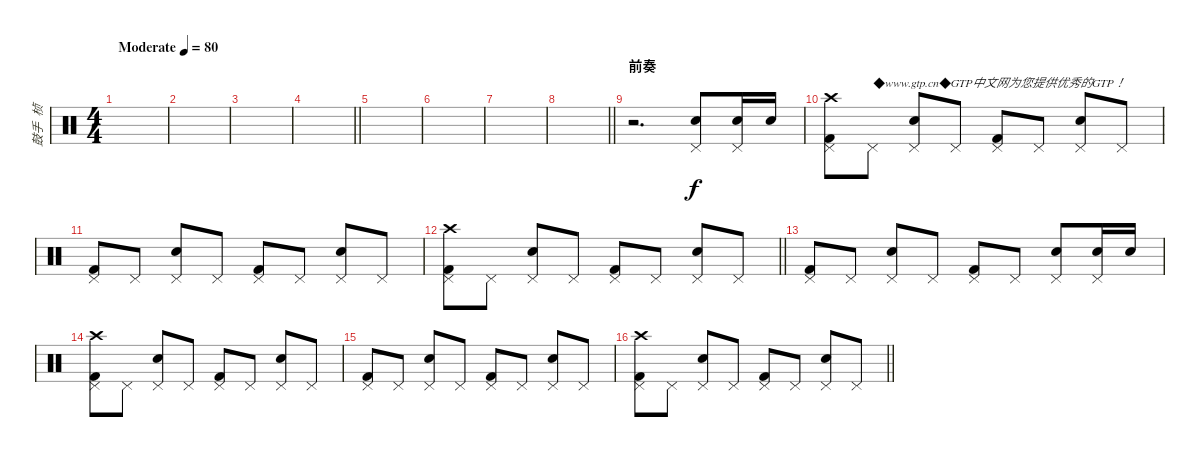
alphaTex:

\track ("鼓手  桢" "鼓手  桢") {instrument percussion}
\staff {score}
\articulation defaults
\ts (4 4)
\tempo (80 "Moderate")
\clef neutral
\ks c
|
|
|
\barLineRight lightlight
|
|
|
|
\barLineRight lightlight
|
\section ("" "前奏")
r.2{d} ("Pedal Hi-Hat (hit)" "Snare (hit) 2").8 ("Pedal Hi-Hat (hit)" "Snare (hit) 2").16 "Snare (hit) 2".16 |
("Pedal Hi-Hat (hit)" "Kick (hit) 2" "Crash high (hit)").8 "Pedal Hi-Hat (hit)".8{txt "◆www.gtp.cn◆GTP中文网为您提供优秀的GTP！"} ("Pedal Hi-Hat (hit)" "Snare (hit) 2").8 "Pedal Hi-Hat (hit)".8 ("Pedal Hi-Hat (hit)" "Kick (hit) 2").8 "Pedal Hi-Hat (hit)".8 ("Pedal Hi-Hat (hit)" "Snare (hit) 2").8 "Pedal Hi-Hat (hit)".8 |
("Pedal Hi-Hat (hit)" "Kick (hit) 2").8 "Pedal Hi-Hat (hit)".8 ("Pedal Hi-Hat (hit)" "Snare (hit) 2").8 "Pedal Hi-Hat (hit)".8 ("Pedal Hi-Hat (hit)" "Kick (hit) 2").8 "Pedal Hi-Hat (hit)".8 ("Pedal Hi-Hat (hit)" "Snare (hit) 2").8 "Pedal Hi-Hat (hit)".8 |
\barLineRight lightlight
("Pedal Hi-Hat (hit)" "Kick (hit) 2" "Crash high (hit)").8 "Pedal Hi-Hat (hit)".8 ("Pedal Hi-Hat (hit)" "Snare (hit) 2").8 "Pedal Hi-Hat (hit)".8 ("Pedal Hi-Hat (hit)" "Kick (hit) 2").8 "Pedal Hi-Hat (hit)".8 ("Pedal Hi-Hat (hit)" "Snare (hit) 2").8 "Pedal Hi-Hat (hit)".8 |
("Pedal Hi-Hat (hit)" "Kick (hit) 2").8 "Pedal Hi-Hat (hit)".8 ("Pedal Hi-Hat (hit)" "Snare (hit) 2").8 "Pedal Hi-Hat (hit)".8 ("Pedal Hi-Hat (hit)" "Kick (hit) 2").8 "Pedal Hi-Hat (hit)".8 ("Pedal Hi-Hat (hit)" "Snare (hit) 2").8 ("Pedal Hi-Hat (hit)" "Snare (hit) 2").16 "Snare (hit) 2".16 |
("Pedal Hi-Hat (hit)" "Kick (hit) 2" "Crash high (hit)").8 "Pedal Hi-Hat (hit)".8 ("Pedal Hi-Hat (hit)" "Snare (hit) 2").8 "Pedal Hi-Hat (hit)".8 ("Pedal Hi-Hat (hit)" "Kick (hit) 2").8 "Pedal Hi-Hat (hit)".8 ("Pedal Hi-Hat (hit)" "Snare (hit) 2").8 "Pedal Hi-Hat (hit)".8 |
("Pedal Hi-Hat (hit)" "Kick (hit) 2").8 "Pedal Hi-Hat (hit)".8 ("Pedal Hi-Hat (hit)" "Snare (hit) 2").8 "Pedal Hi-Hat (hit)".8 ("Pedal Hi-Hat (hit)" "Kick (hit) 2").8 "Pedal Hi-Hat (hit)".8 ("Pedal Hi-Hat (hit)" "Snare (hit) 2").8 "Pedal Hi-Hat (hit)".8 |
\barLineRight lightlight
("Pedal Hi-Hat (hit)" "Kick (hit) 2" "Crash high (hit)").8 "Pedal Hi-Hat (hit)".8 ("Pedal Hi-Hat (hit)" "Snare (hit) 2").8 "Pedal Hi-Hat (hit)".8 ("Pedal Hi-Hat (hit)" "Kick (hit) 2").8 "Pedal Hi-Hat (hit)".8 ("Pedal Hi-Hat (hit)" "Snare (hit) 2").8 "Pedal Hi-Hat (hit)".8
